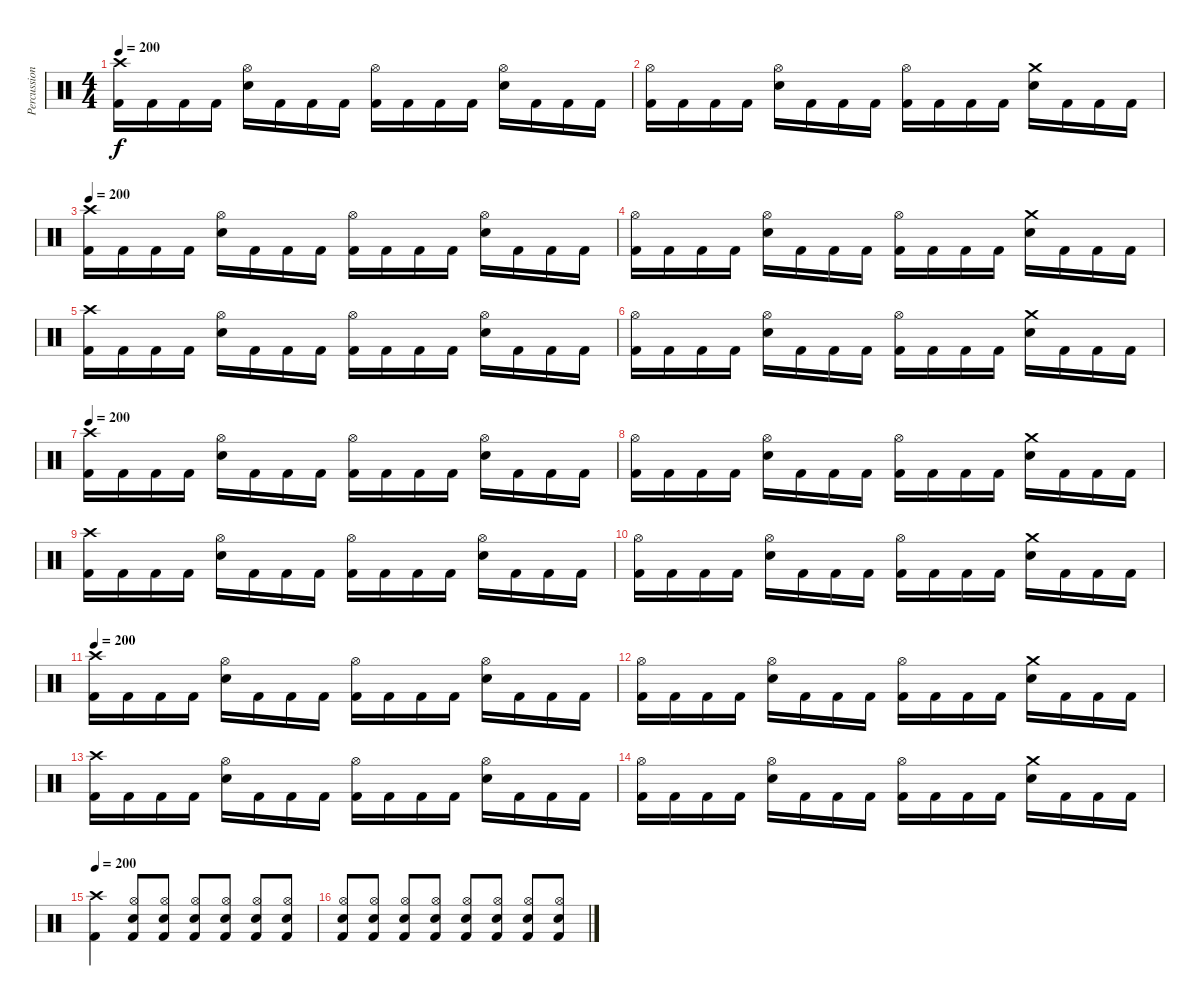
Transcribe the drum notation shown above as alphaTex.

\track ("Percussion" "Percussion") {instrument percussion}
\staff {score}
\articulation defaults
\ts (4 4)
\tempo 200
\clef neutral
\ks c
("Crash high (hit)" "Kick (hit) 2").16{dy f} "Kick (hit) 2".16 "Kick (hit) 2".16 "Kick (hit) 2".16 ("Hi-Hat (open)" "Electric Snare (hit)").16 "Kick (hit) 2".16 "Kick (hit) 2".16 "Kick (hit) 2".16 ("Hi-Hat (open)" "Kick (hit) 2").16 "Kick (hit) 2".16 "Kick (hit) 2".16 "Kick (hit) 2".16 ("Hi-Hat (open)" "Electric Snare (hit)").16 "Kick (hit) 2".16 "Kick (hit) 2".16 "Kick (hit) 2".16 |
("Hi-Hat (open)" "Kick (hit) 2").16 "Kick (hit) 2".16 "Kick (hit) 2".16 "Kick (hit) 2".16 ("Hi-Hat (open)" "Electric Snare (hit)").16 "Kick (hit) 2".16 "Kick (hit) 2".16 "Kick (hit) 2".16 ("Hi-Hat (open)" "Kick (hit) 2").16 "Kick (hit) 2".16 "Kick (hit) 2".16 "Kick (hit) 2".16 ("Crash medium (hit)" "Electric Snare (hit)").16 "Kick (hit) 2".16 "Kick (hit) 2".16 "Kick (hit) 2".16 |
\tempo 200
("Crash high (hit)" "Kick (hit) 2").16 "Kick (hit) 2".16 "Kick (hit) 2".16 "Kick (hit) 2".16 ("Hi-Hat (open)" "Electric Snare (hit)").16 "Kick (hit) 2".16 "Kick (hit) 2".16 "Kick (hit) 2".16 ("Hi-Hat (open)" "Kick (hit) 2").16 "Kick (hit) 2".16 "Kick (hit) 2".16 "Kick (hit) 2".16 ("Hi-Hat (open)" "Electric Snare (hit)").16 "Kick (hit) 2".16 "Kick (hit) 2".16 "Kick (hit) 2".16 |
("Hi-Hat (open)" "Kick (hit) 2").16 "Kick (hit) 2".16 "Kick (hit) 2".16 "Kick (hit) 2".16 ("Hi-Hat (open)" "Electric Snare (hit)").16 "Kick (hit) 2".16 "Kick (hit) 2".16 "Kick (hit) 2".16 ("Hi-Hat (open)" "Kick (hit) 2").16 "Kick (hit) 2".16 "Kick (hit) 2".16 "Kick (hit) 2".16 ("Crash medium (hit)" "Electric Snare (hit)").16 "Kick (hit) 2".16 "Kick (hit) 2".16 "Kick (hit) 2".16 |
("Crash high (hit)" "Kick (hit) 2").16 "Kick (hit) 2".16 "Kick (hit) 2".16 "Kick (hit) 2".16 ("Hi-Hat (open)" "Electric Snare (hit)").16 "Kick (hit) 2".16 "Kick (hit) 2".16 "Kick (hit) 2".16 ("Hi-Hat (open)" "Kick (hit) 2").16 "Kick (hit) 2".16 "Kick (hit) 2".16 "Kick (hit) 2".16 ("Hi-Hat (open)" "Electric Snare (hit)").16 "Kick (hit) 2".16 "Kick (hit) 2".16 "Kick (hit) 2".16 |
("Hi-Hat (open)" "Kick (hit) 2").16 "Kick (hit) 2".16 "Kick (hit) 2".16 "Kick (hit) 2".16 ("Hi-Hat (open)" "Electric Snare (hit)").16 "Kick (hit) 2".16 "Kick (hit) 2".16 "Kick (hit) 2".16 ("Hi-Hat (open)" "Kick (hit) 2").16 "Kick (hit) 2".16 "Kick (hit) 2".16 "Kick (hit) 2".16 ("Crash medium (hit)" "Electric Snare (hit)").16 "Kick (hit) 2".16 "Kick (hit) 2".16 "Kick (hit) 2".16 |
\tempo 200
("Crash high (hit)" "Kick (hit) 2").16 "Kick (hit) 2".16 "Kick (hit) 2".16 "Kick (hit) 2".16 ("Hi-Hat (open)" "Electric Snare (hit)").16 "Kick (hit) 2".16 "Kick (hit) 2".16 "Kick (hit) 2".16 ("Hi-Hat (open)" "Kick (hit) 2").16 "Kick (hit) 2".16 "Kick (hit) 2".16 "Kick (hit) 2".16 ("Hi-Hat (open)" "Electric Snare (hit)").16 "Kick (hit) 2".16 "Kick (hit) 2".16 "Kick (hit) 2".16 |
("Hi-Hat (open)" "Kick (hit) 2").16 "Kick (hit) 2".16 "Kick (hit) 2".16 "Kick (hit) 2".16 ("Hi-Hat (open)" "Electric Snare (hit)").16 "Kick (hit) 2".16 "Kick (hit) 2".16 "Kick (hit) 2".16 ("Hi-Hat (open)" "Kick (hit) 2").16 "Kick (hit) 2".16 "Kick (hit) 2".16 "Kick (hit) 2".16 ("Crash medium (hit)" "Electric Snare (hit)").16 "Kick (hit) 2".16 "Kick (hit) 2".16 "Kick (hit) 2".16 |
("Crash high (hit)" "Kick (hit) 2").16 "Kick (hit) 2".16 "Kick (hit) 2".16 "Kick (hit) 2".16 ("Hi-Hat (open)" "Electric Snare (hit)").16 "Kick (hit) 2".16 "Kick (hit) 2".16 "Kick (hit) 2".16 ("Hi-Hat (open)" "Kick (hit) 2").16 "Kick (hit) 2".16 "Kick (hit) 2".16 "Kick (hit) 2".16 ("Hi-Hat (open)" "Electric Snare (hit)").16 "Kick (hit) 2".16 "Kick (hit) 2".16 "Kick (hit) 2".16 |
("Hi-Hat (open)" "Kick (hit) 2").16 "Kick (hit) 2".16 "Kick (hit) 2".16 "Kick (hit) 2".16 ("Hi-Hat (open)" "Electric Snare (hit)").16 "Kick (hit) 2".16 "Kick (hit) 2".16 "Kick (hit) 2".16 ("Hi-Hat (open)" "Kick (hit) 2").16 "Kick (hit) 2".16 "Kick (hit) 2".16 "Kick (hit) 2".16 ("Crash medium (hit)" "Electric Snare (hit)").16 "Kick (hit) 2".16 "Kick (hit) 2".16 "Kick (hit) 2".16 |
\tempo 200
("Crash high (hit)" "Kick (hit) 2").16 "Kick (hit) 2".16 "Kick (hit) 2".16 "Kick (hit) 2".16 ("Hi-Hat (open)" "Electric Snare (hit)").16 "Kick (hit) 2".16 "Kick (hit) 2".16 "Kick (hit) 2".16 ("Hi-Hat (open)" "Kick (hit) 2").16 "Kick (hit) 2".16 "Kick (hit) 2".16 "Kick (hit) 2".16 ("Hi-Hat (open)" "Electric Snare (hit)").16 "Kick (hit) 2".16 "Kick (hit) 2".16 "Kick (hit) 2".16 |
("Hi-Hat (open)" "Kick (hit) 2").16 "Kick (hit) 2".16 "Kick (hit) 2".16 "Kick (hit) 2".16 ("Hi-Hat (open)" "Electric Snare (hit)").16 "Kick (hit) 2".16 "Kick (hit) 2".16 "Kick (hit) 2".16 ("Hi-Hat (open)" "Kick (hit) 2").16 "Kick (hit) 2".16 "Kick (hit) 2".16 "Kick (hit) 2".16 ("Crash medium (hit)" "Electric Snare (hit)").16 "Kick (hit) 2".16 "Kick (hit) 2".16 "Kick (hit) 2".16 |
("Crash high (hit)" "Kick (hit) 2").16 "Kick (hit) 2".16 "Kick (hit) 2".16 "Kick (hit) 2".16 ("Hi-Hat (open)" "Electric Snare (hit)").16 "Kick (hit) 2".16 "Kick (hit) 2".16 "Kick (hit) 2".16 ("Hi-Hat (open)" "Kick (hit) 2").16 "Kick (hit) 2".16 "Kick (hit) 2".16 "Kick (hit) 2".16 ("Hi-Hat (open)" "Electric Snare (hit)").16 "Kick (hit) 2".16 "Kick (hit) 2".16 "Kick (hit) 2".16 |
("Hi-Hat (open)" "Kick (hit) 2").16 "Kick (hit) 2".16 "Kick (hit) 2".16 "Kick (hit) 2".16 ("Hi-Hat (open)" "Electric Snare (hit)").16 "Kick (hit) 2".16 "Kick (hit) 2".16 "Kick (hit) 2".16 ("Hi-Hat (open)" "Kick (hit) 2").16 "Kick (hit) 2".16 "Kick (hit) 2".16 "Kick (hit) 2".16 ("Crash medium (hit)" "Electric Snare (hit)").16 "Kick (hit) 2".16 "Kick (hit) 2".16 "Kick (hit) 2".16 |
\tempo 200
("Crash high (hit)" "Kick (hit) 2").4 ("Hi-Hat (open)" "Electric Snare (hit)" "Kick (hit) 2").8 ("Hi-Hat (open)" "Electric Snare (hit)" "Kick (hit) 2").8 ("Hi-Hat (open)" "Electric Snare (hit)" "Kick (hit) 2").8 ("Hi-Hat (open)" "Electric Snare (hit)" "Kick (hit) 2").8 ("Hi-Hat (open)" "Electric Snare (hit)" "Kick (hit) 2").8 ("Hi-Hat (open)" "Electric Snare (hit)" "Kick (hit) 2").8 |
("Hi-Hat (open)" "Electric Snare (hit)" "Kick (hit) 2").8 ("Hi-Hat (open)" "Electric Snare (hit)" "Kick (hit) 2").8 ("Hi-Hat (open)" "Electric Snare (hit)" "Kick (hit) 2").8 ("Hi-Hat (open)" "Electric Snare (hit)" "Kick (hit) 2").8 ("Hi-Hat (open)" "Electric Snare (hit)" "Kick (hit) 2").8 ("Hi-Hat (open)" "Electric Snare (hit)" "Kick (hit) 2").8 ("Hi-Hat (open)" "Electric Snare (hit)" "Kick (hit) 2").8 ("Hi-Hat (open)" "Electric Snare (hit)" "Kick (hit) 2").8
